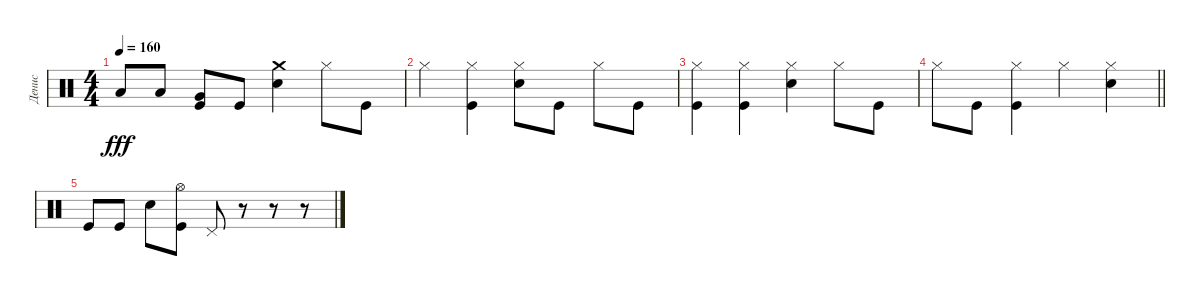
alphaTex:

\track ("Денис" "Денис") {instrument percussion}
\staff {score}
\articulation defaults
\ts (4 4)
\tempo 160
\clef neutral
\ks c "Low Tom (hit)".8{dy fff} "Low Tom (hit)".8
("Very Low Tom (hit)" "Kick (hit)").8 "Kick (hit)".8 ("Electric Snare (hit)" "Crash medium (hit)").4 "Hi-Hat (closed)".8 "Kick (hit)".8 |
"Hi-Hat (closed)".4 ("Hi-Hat (closed)" "Kick (hit)").4 ("Electric Snare (hit)" "Hi-Hat (closed)").8 "Kick (hit)".8 "Hi-Hat (closed)".8 "Kick (hit)".8 |
("Hi-Hat (closed)" "Kick (hit)").4 ("Kick (hit)" "Hi-Hat (closed)").4 ("Electric Snare (hit)" "Hi-Hat (closed)").4 "Hi-Hat (closed)".8 "Kick (hit)".8 |
\barLineRight lightlight "Hi-Hat (closed)".8 "Kick (hit)".8
("Hi-Hat (closed)" "Kick (hit)").4 "Hi-Hat (closed)".4 ("Electric Snare (hit)" "Hi-Hat (closed)").4 |
"Kick (hit)".8 "Kick (hit)".8 "Electric Snare (hit)".8 ("Kick (hit)" "Hi-Hat (open)").8 "Pedal Hi-Hat (hit)".8 r.8 r.8 r.8
